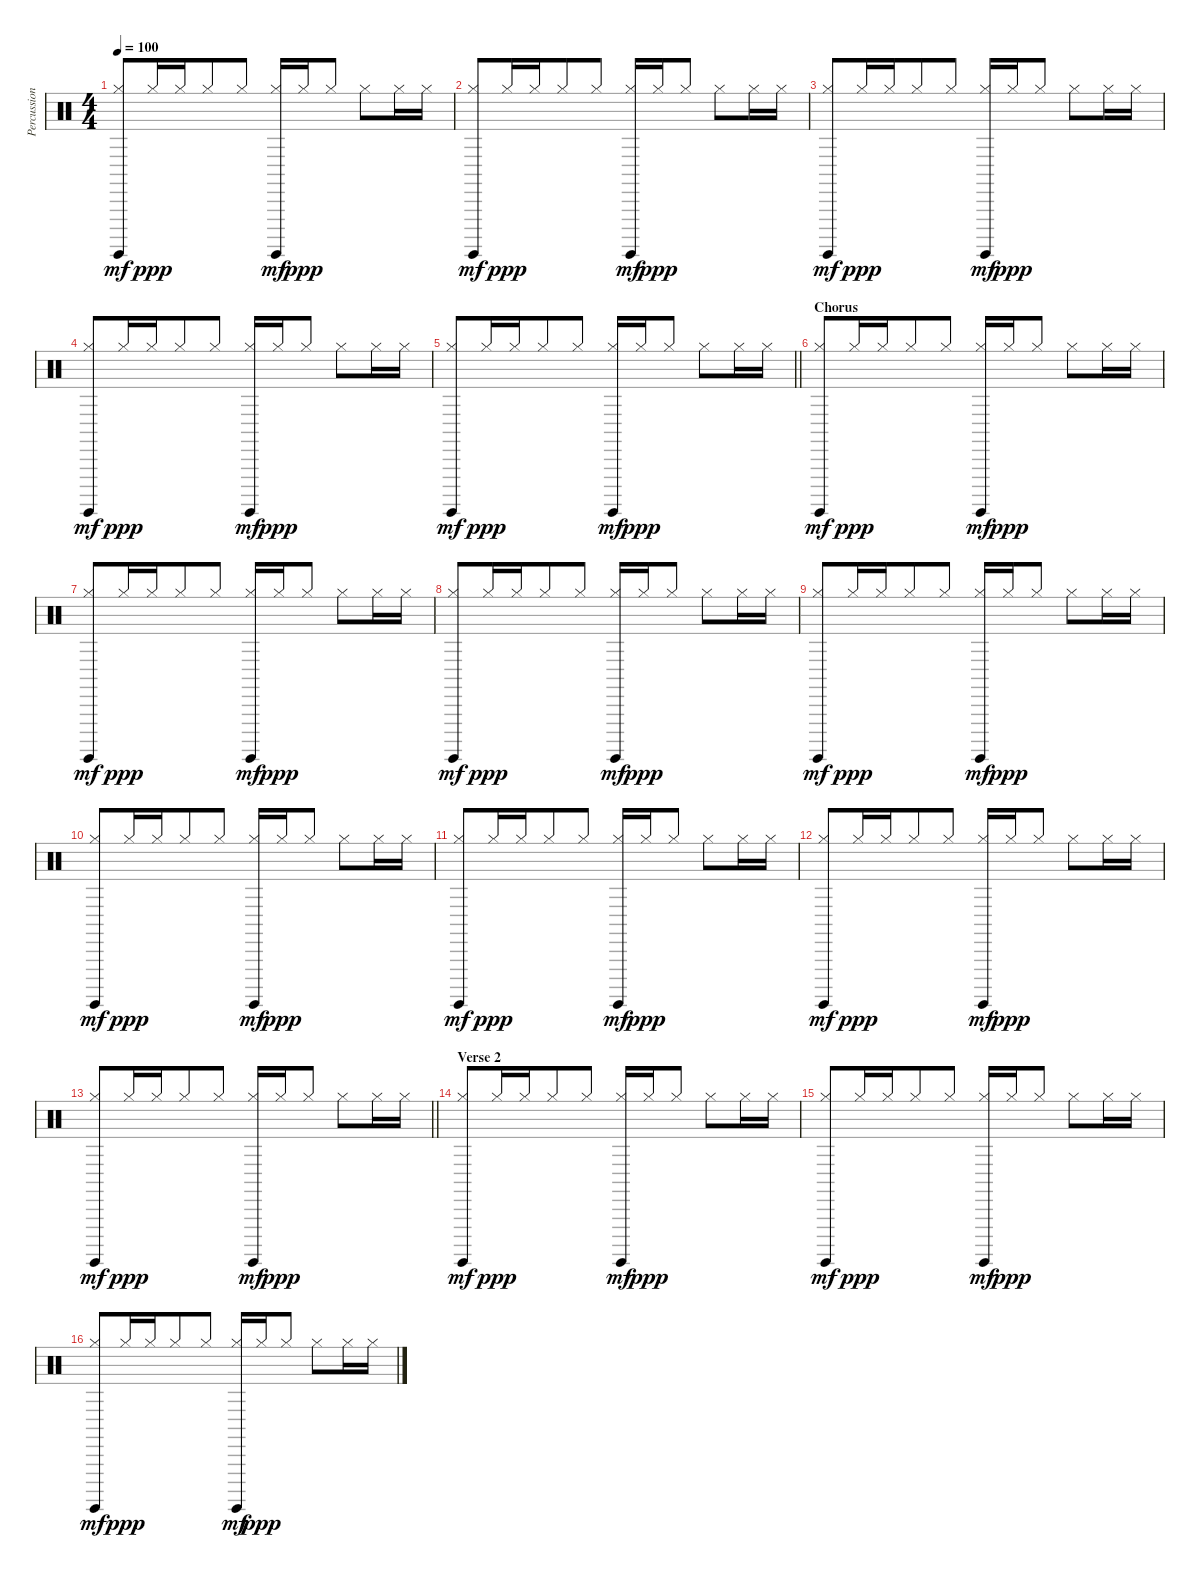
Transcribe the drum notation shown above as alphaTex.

\track ("Percussion" "Percussion") {instrument percussion}
\staff {score}
\articulation defaults
\ts (4 4)
\tempo 100
\clef neutral
\ks c
("Hi-Hat (closed)" "Surdo (hit)").8{dy mf} "Hi-Hat (closed)".16{dy ppp} "Hi-Hat (closed)".16{beam merge} "Hi-Hat (closed)".8 "Hi-Hat (closed)".8 ("Hi-Hat (closed)" "Surdo (hit)").16{dy mf} "Hi-Hat (closed)".16{dy ppp beam merge} "Hi-Hat (closed)".8 "Hi-Hat (closed)".8 "Hi-Hat (closed)".16 "Hi-Hat (closed)".16 |
("Hi-Hat (closed)" "Surdo (hit)").8{dy mf} "Hi-Hat (closed)".16{dy ppp} "Hi-Hat (closed)".16{beam merge} "Hi-Hat (closed)".8 "Hi-Hat (closed)".8 ("Hi-Hat (closed)" "Surdo (hit)").16{dy mf} "Hi-Hat (closed)".16{dy ppp beam merge} "Hi-Hat (closed)".8 "Hi-Hat (closed)".8 "Hi-Hat (closed)".16 "Hi-Hat (closed)".16 |
("Hi-Hat (closed)" "Surdo (hit)").8{dy mf} "Hi-Hat (closed)".16{dy ppp} "Hi-Hat (closed)".16{beam merge} "Hi-Hat (closed)".8 "Hi-Hat (closed)".8 ("Hi-Hat (closed)" "Surdo (hit)").16{dy mf} "Hi-Hat (closed)".16{dy ppp beam merge} "Hi-Hat (closed)".8 "Hi-Hat (closed)".8 "Hi-Hat (closed)".16 "Hi-Hat (closed)".16 |
("Hi-Hat (closed)" "Surdo (hit)").8{dy mf} "Hi-Hat (closed)".16{dy ppp} "Hi-Hat (closed)".16{beam merge} "Hi-Hat (closed)".8 "Hi-Hat (closed)".8 ("Hi-Hat (closed)" "Surdo (hit)").16{dy mf} "Hi-Hat (closed)".16{dy ppp beam merge} "Hi-Hat (closed)".8 "Hi-Hat (closed)".8 "Hi-Hat (closed)".16 "Hi-Hat (closed)".16 |
\barLineRight lightlight
("Hi-Hat (closed)" "Surdo (hit)").8{dy mf} "Hi-Hat (closed)".16{dy ppp} "Hi-Hat (closed)".16{beam merge} "Hi-Hat (closed)".8 "Hi-Hat (closed)".8 ("Hi-Hat (closed)" "Surdo (hit)").16{dy mf} "Hi-Hat (closed)".16{dy ppp beam merge} "Hi-Hat (closed)".8 "Hi-Hat (closed)".8 "Hi-Hat (closed)".16 "Hi-Hat (closed)".16 |
\section ("" "Chorus")
("Hi-Hat (closed)" "Surdo (hit)").8{dy mf} "Hi-Hat (closed)".16{dy ppp} "Hi-Hat (closed)".16{beam merge} "Hi-Hat (closed)".8 "Hi-Hat (closed)".8 ("Hi-Hat (closed)" "Surdo (hit)").16{dy mf} "Hi-Hat (closed)".16{dy ppp beam merge} "Hi-Hat (closed)".8 "Hi-Hat (closed)".8 "Hi-Hat (closed)".16 "Hi-Hat (closed)".16 |
("Hi-Hat (closed)" "Surdo (hit)").8{dy mf} "Hi-Hat (closed)".16{dy ppp} "Hi-Hat (closed)".16{beam merge} "Hi-Hat (closed)".8 "Hi-Hat (closed)".8 ("Hi-Hat (closed)" "Surdo (hit)").16{dy mf} "Hi-Hat (closed)".16{dy ppp beam merge} "Hi-Hat (closed)".8 "Hi-Hat (closed)".8 "Hi-Hat (closed)".16 "Hi-Hat (closed)".16 |
("Hi-Hat (closed)" "Surdo (hit)").8{dy mf} "Hi-Hat (closed)".16{dy ppp} "Hi-Hat (closed)".16{beam merge} "Hi-Hat (closed)".8 "Hi-Hat (closed)".8 ("Hi-Hat (closed)" "Surdo (hit)").16{dy mf} "Hi-Hat (closed)".16{dy ppp beam merge} "Hi-Hat (closed)".8 "Hi-Hat (closed)".8 "Hi-Hat (closed)".16 "Hi-Hat (closed)".16 |
("Hi-Hat (closed)" "Surdo (hit)").8{dy mf} "Hi-Hat (closed)".16{dy ppp} "Hi-Hat (closed)".16{beam merge} "Hi-Hat (closed)".8 "Hi-Hat (closed)".8 ("Hi-Hat (closed)" "Surdo (hit)").16{dy mf} "Hi-Hat (closed)".16{dy ppp beam merge} "Hi-Hat (closed)".8 "Hi-Hat (closed)".8 "Hi-Hat (closed)".16 "Hi-Hat (closed)".16 |
("Hi-Hat (closed)" "Surdo (hit)").8{dy mf} "Hi-Hat (closed)".16{dy ppp} "Hi-Hat (closed)".16{beam merge} "Hi-Hat (closed)".8 "Hi-Hat (closed)".8 ("Hi-Hat (closed)" "Surdo (hit)").16{dy mf} "Hi-Hat (closed)".16{dy ppp beam merge} "Hi-Hat (closed)".8 "Hi-Hat (closed)".8 "Hi-Hat (closed)".16 "Hi-Hat (closed)".16 |
("Hi-Hat (closed)" "Surdo (hit)").8{dy mf} "Hi-Hat (closed)".16{dy ppp} "Hi-Hat (closed)".16{beam merge} "Hi-Hat (closed)".8 "Hi-Hat (closed)".8 ("Hi-Hat (closed)" "Surdo (hit)").16{dy mf} "Hi-Hat (closed)".16{dy ppp beam merge} "Hi-Hat (closed)".8 "Hi-Hat (closed)".8 "Hi-Hat (closed)".16 "Hi-Hat (closed)".16 |
("Hi-Hat (closed)" "Surdo (hit)").8{dy mf} "Hi-Hat (closed)".16{dy ppp} "Hi-Hat (closed)".16{beam merge} "Hi-Hat (closed)".8 "Hi-Hat (closed)".8 ("Hi-Hat (closed)" "Surdo (hit)").16{dy mf} "Hi-Hat (closed)".16{dy ppp beam merge} "Hi-Hat (closed)".8 "Hi-Hat (closed)".8 "Hi-Hat (closed)".16 "Hi-Hat (closed)".16 |
\barLineRight lightlight
("Hi-Hat (closed)" "Surdo (hit)").8{dy mf} "Hi-Hat (closed)".16{dy ppp} "Hi-Hat (closed)".16{beam merge} "Hi-Hat (closed)".8 "Hi-Hat (closed)".8 ("Hi-Hat (closed)" "Surdo (hit)").16{dy mf} "Hi-Hat (closed)".16{dy ppp beam merge} "Hi-Hat (closed)".8 "Hi-Hat (closed)".8 "Hi-Hat (closed)".16 "Hi-Hat (closed)".16 |
\section ("" "Verse 2")
("Hi-Hat (closed)" "Surdo (hit)").8{dy mf} "Hi-Hat (closed)".16{dy ppp} "Hi-Hat (closed)".16{beam merge} "Hi-Hat (closed)".8 "Hi-Hat (closed)".8 ("Hi-Hat (closed)" "Surdo (hit)").16{dy mf} "Hi-Hat (closed)".16{dy ppp beam merge} "Hi-Hat (closed)".8 "Hi-Hat (closed)".8 "Hi-Hat (closed)".16 "Hi-Hat (closed)".16 |
("Hi-Hat (closed)" "Surdo (hit)").8{dy mf} "Hi-Hat (closed)".16{dy ppp} "Hi-Hat (closed)".16{beam merge} "Hi-Hat (closed)".8 "Hi-Hat (closed)".8 ("Hi-Hat (closed)" "Surdo (hit)").16{dy mf} "Hi-Hat (closed)".16{dy ppp beam merge} "Hi-Hat (closed)".8 "Hi-Hat (closed)".8 "Hi-Hat (closed)".16 "Hi-Hat (closed)".16 |
("Hi-Hat (closed)" "Surdo (hit)").8{dy mf} "Hi-Hat (closed)".16{dy ppp} "Hi-Hat (closed)".16{beam merge} "Hi-Hat (closed)".8 "Hi-Hat (closed)".8 ("Hi-Hat (closed)" "Surdo (hit)").16{dy mf} "Hi-Hat (closed)".16{dy ppp beam merge} "Hi-Hat (closed)".8 "Hi-Hat (closed)".8 "Hi-Hat (closed)".16 "Hi-Hat (closed)".16
